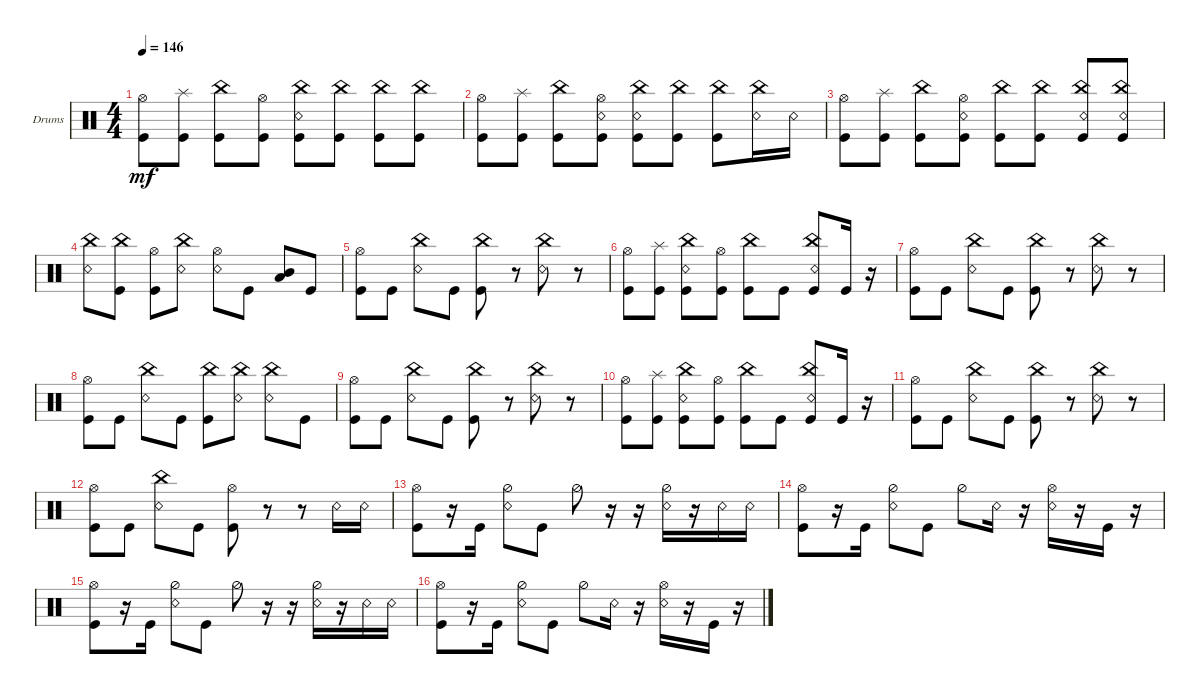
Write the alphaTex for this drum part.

\defaultSystemsLayout 4
\bracketExtendMode groupsimilarinstruments
\firstSystemTrackNameOrientation horizontal
\otherSystemsTrackNameOrientation horizontal
\track ("Drums" "Drums") {instrument percussion}
\staff {score}
\articulation defaults
\ts (4 4)
\tempo 146
\clef neutral
\ks c
("Kick (hit)" "Hi-Hat (open)").8{dy mf} ("Kick (hit)" "Splash (hit)").8 ("Kick (hit)" "China (hit)").8 ("Kick (hit)" "Hi-Hat (open)").8 ("Snare (rim shot)" "Kick (hit)" "China (hit)").8 ("Kick (hit)" "China (hit)").8 ("Kick (hit)" "China (hit)").8 ("Kick (hit)" "China (hit)").8 |
("Kick (hit)" "Hi-Hat (open)").8 ("Kick (hit)" "Splash (hit)").8 ("Kick (hit)" "China (hit)").8 ("Kick (hit)" "Hi-Hat (open)" "Snare (rim shot)").8 ("Snare (rim shot)" "Kick (hit)" "China (hit)").8 ("Kick (hit)" "China (hit)").8 ("Kick (hit)" "China (hit)").8 ("China (hit)" "Snare (rim shot)").16 "Snare (rim shot)".16 |
("Kick (hit)" "Hi-Hat (open)").8 ("Kick (hit)" "Splash (hit)").8 ("Kick (hit)" "China (hit)").8 ("Kick (hit)" "Hi-Hat (open)" "Snare (rim shot)").8 ("Kick (hit)" "China (hit)").8 ("Kick (hit)" "China (hit)").8 ("Kick (hit)" "China (hit)" "Snare (rim shot)").8 ("Kick (hit)" "China (hit)" "Snare (rim shot)").8 |
("Snare (rim shot)" "China (hit)").8 ("Kick (hit)" "China (hit)").8 ("Kick (hit)" "Hi-Hat (open)").8 ("Snare (rim shot)" "China (hit)").8 ("Snare (rim shot)" "Hi-Hat (open)").8 "Kick (hit)".8 ("Mid Tom (hit)" "Low Tom (hit)").8 "Kick (hit)".8 |
("Kick (hit)" "Hi-Hat (open)").8 "Kick (hit)".8 ("China (hit)" "Snare (rim shot)").8 "Kick (hit)".8 ("Kick (hit)" "China (hit)").8 r.8 ("China (hit)" "Snare (rim shot)").8 r.8 |
("Kick (hit)" "Hi-Hat (open)").8 ("Kick (hit)" "Splash (hit)").8 ("Kick (hit)" "China (hit)" "Snare (rim shot)").8 ("Kick (hit)" "Hi-Hat (open)").8 ("Kick (hit)" "China (hit)").8 "Kick (hit)".8 ("Kick (hit)" "China (hit)" "Snare (rim shot)").8 "Kick (hit)".16 r.16 |
("Kick (hit)" "Hi-Hat (open)").8 "Kick (hit)".8 ("China (hit)" "Snare (rim shot)").8 "Kick (hit)".8 ("Kick (hit)" "China (hit)").8 r.8 ("China (hit)" "Snare (rim shot)").8 r.8 |
("Kick (hit)" "Hi-Hat (open)").8 "Kick (hit)".8 ("China (hit)" "Snare (rim shot)").8 "Kick (hit)".8 ("Kick (hit)" "China (hit)").8 ("Snare (rim shot)" "China (hit)").8 ("China (hit)" "Snare (rim shot)").8 "Kick (hit)".8 |
("Kick (hit)" "Hi-Hat (open)").8 "Kick (hit)".8 ("China (hit)" "Snare (rim shot)").8 "Kick (hit)".8 ("Kick (hit)" "China (hit)").8 r.8 ("China (hit)" "Snare (rim shot)").8 r.8 |
("Kick (hit)" "Hi-Hat (open)").8 ("Kick (hit)" "Splash (hit)").8 ("Kick (hit)" "China (hit)" "Snare (rim shot)").8 ("Kick (hit)" "Hi-Hat (open)").8 ("Kick (hit)" "China (hit)").8 "Kick (hit)".8 ("Kick (hit)" "China (hit)" "Snare (rim shot)").8 "Kick (hit)".16 r.16 |
("Kick (hit)" "Hi-Hat (open)").8 "Kick (hit)".8 ("China (hit)" "Snare (rim shot)").8 "Kick (hit)".8 ("Kick (hit)" "China (hit)").8 r.8 ("China (hit)" "Snare (rim shot)").8 r.8 |
("Kick (hit)" "Hi-Hat (open)").8 "Kick (hit)".8 ("China (hit)" "Snare (rim shot)").8 "Kick (hit)".8 ("Kick (hit)" "Hi-Hat (open)").8 r.8 r.8 "Snare (rim shot)".16 "Snare (rim shot)".16 |
("Hi-Hat (open)" "Kick (hit)").8 r.16 "Kick (hit)".16 ("Snare (rim shot)" "Hi-Hat (half)").8 "Kick (hit)".8 "Hi-Hat (half)".8 r.16 r.16 ("Hi-Hat (half)" "Snare (rim shot)").16 r.16 "Snare (rim shot)".16 "Snare (rim shot)".16 |
("Hi-Hat (open)" "Kick (hit)").8 r.16 "Kick (hit)".16 ("Snare (rim shot)" "Hi-Hat (half)").8 "Kick (hit)".8 "Hi-Hat (half)".8 "Snare (rim shot)".16 r.16 ("Snare (rim shot)" "Hi-Hat (open)").16 r.16 "Kick (hit)".16 r.16 |
("Hi-Hat (open)" "Kick (hit)").8 r.16 "Kick (hit)".16 ("Snare (rim shot)" "Hi-Hat (half)").8 "Kick (hit)".8 "Hi-Hat (half)".8 r.16 r.16 ("Hi-Hat (half)" "Snare (rim shot)").16 r.16 "Snare (rim shot)".16 "Snare (rim shot)".16 |
("Hi-Hat (open)" "Kick (hit)").8 r.16 "Kick (hit)".16 ("Snare (rim shot)" "Hi-Hat (half)").8 "Kick (hit)".8 "Hi-Hat (half)".8 "Snare (rim shot)".16 r.16 ("Snare (rim shot)" "Hi-Hat (open)").16 r.16 "Kick (hit)".16 r.16
